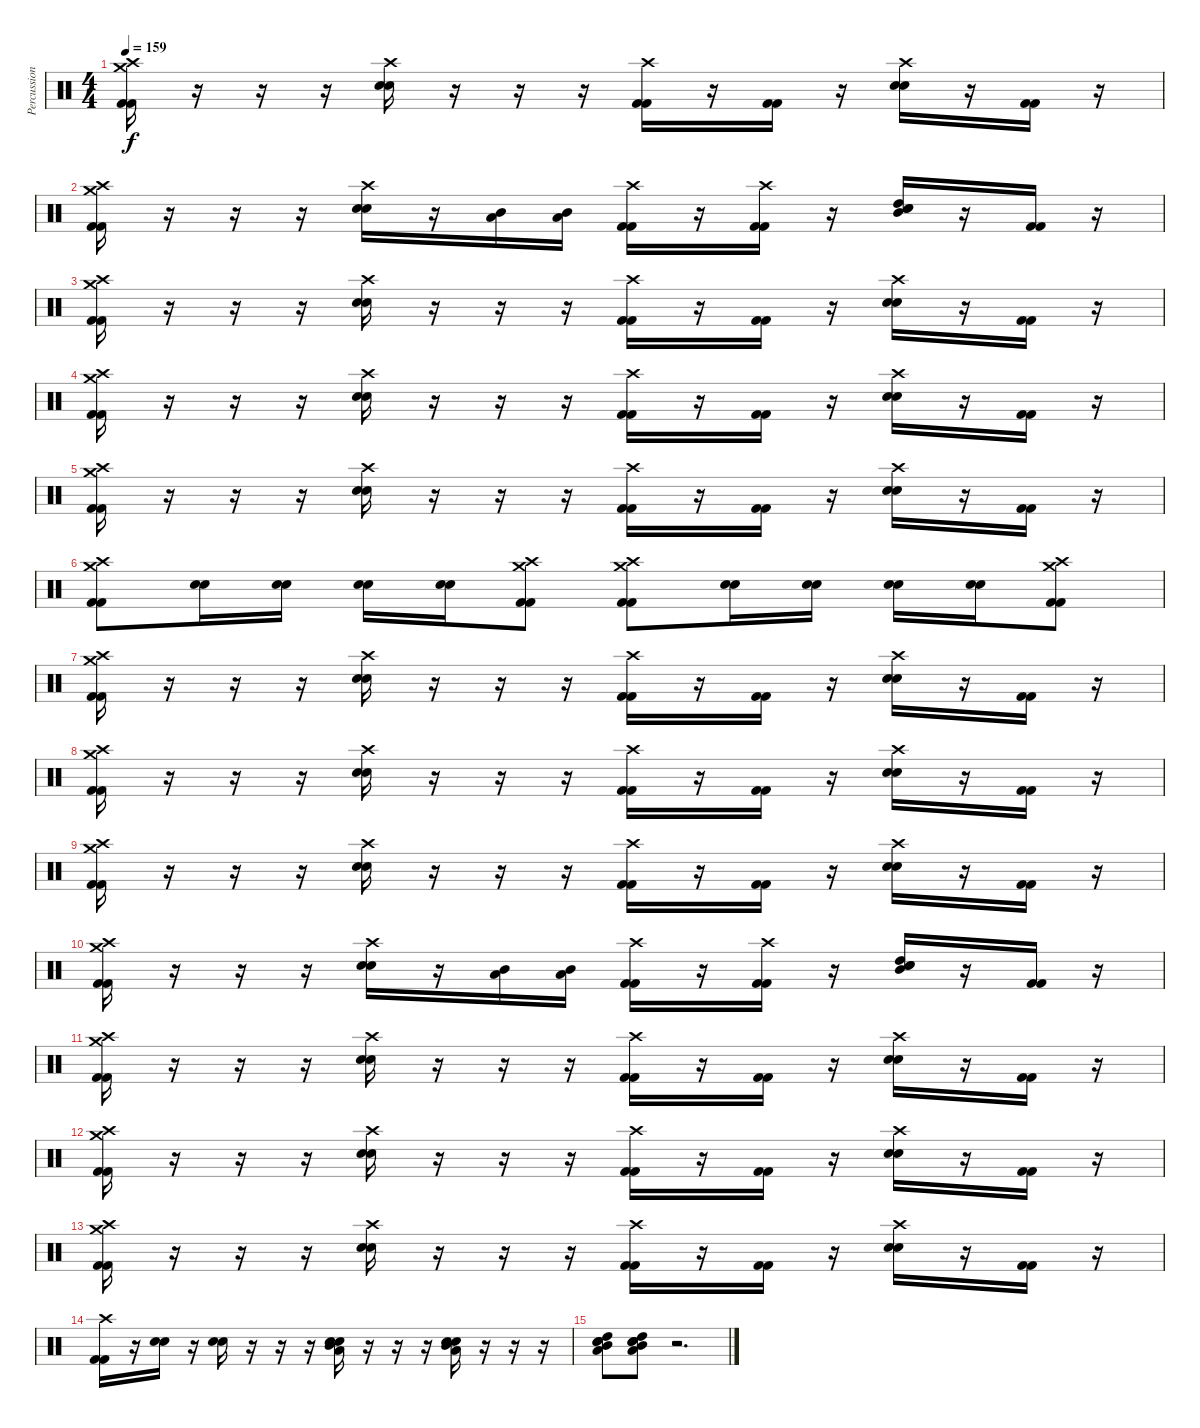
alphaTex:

\track ("Percussioni" "Percussion") {instrument percussion}
\staff {score}
\articulation defaults
\ts (4 4)
\tempo 159
\clef neutral
\ks c
("Crash high (hit)" "Crash medium (hit)" "Kick (hit) 2" "Kick (hit) 2").16{dy f} r.16 r.16 r.16 ("Crash high (hit)" "Snare (hit) 2" "Snare (hit) 2").16 r.16 r.16 r.16 ("Crash high (hit)" "Kick (hit) 2" "Kick (hit) 2").16 r.16 ("Kick (hit) 2" "Kick (hit) 2").16 r.16 ("Crash high (hit)" "Snare (hit) 2" "Snare (hit) 2").16 r.16 ("Kick (hit) 2" "Kick (hit) 2").16 r.16 |
("Crash high (hit)" "Crash medium (hit)" "Kick (hit) 2" "Kick (hit) 2").16 r.16 r.16 r.16 ("Crash high (hit)" "Snare (hit) 2" "Snare (hit) 2").16 r.16 ("Mid Tom (hit)" "Low Tom (hit)").16 ("Mid Tom (hit)" "Low Tom (hit)").16 ("Crash high (hit)" "Kick (hit) 2" "Kick (hit) 2").16 r.16 ("Crash high (hit)" "Kick (hit) 2" "Kick (hit) 2").16 r.16 ("Mid Tom (hit)" "High Tom (hit)" "Snare (hit) 2" "Snare (hit) 2").16 r.16 ("Kick (hit) 2" "Kick (hit) 2").16 r.16 |
("Crash high (hit)" "Crash medium (hit)" "Kick (hit) 2" "Kick (hit) 2").16 r.16 r.16 r.16 ("Crash high (hit)" "Snare (hit) 2" "Snare (hit) 2").16 r.16 r.16 r.16 ("Crash high (hit)" "Kick (hit) 2" "Kick (hit) 2").16 r.16 ("Kick (hit) 2" "Kick (hit) 2").16 r.16 ("Crash high (hit)" "Snare (hit) 2" "Snare (hit) 2").16 r.16 ("Kick (hit) 2" "Kick (hit) 2").16 r.16 |
("Crash high (hit)" "Crash medium (hit)" "Kick (hit) 2" "Kick (hit) 2").16 r.16 r.16 r.16 ("Crash high (hit)" "Snare (hit) 2" "Snare (hit) 2").16 r.16 r.16 r.16 ("Crash high (hit)" "Kick (hit) 2" "Kick (hit) 2").16 r.16 ("Kick (hit) 2" "Kick (hit) 2").16 r.16 ("Crash high (hit)" "Snare (hit) 2" "Snare (hit) 2").16 r.16 ("Kick (hit) 2" "Kick (hit) 2").16 r.16 |
("Crash high (hit)" "Crash medium (hit)" "Kick (hit) 2" "Kick (hit) 2").16 r.16 r.16 r.16 ("Crash high (hit)" "Snare (hit) 2" "Snare (hit) 2").16 r.16 r.16 r.16 ("Crash high (hit)" "Kick (hit) 2" "Kick (hit) 2").16 r.16 ("Kick (hit) 2" "Kick (hit) 2").16 r.16 ("Crash high (hit)" "Snare (hit) 2" "Snare (hit) 2").16 r.16 ("Kick (hit) 2" "Kick (hit) 2").16 r.16 |
("Crash medium (hit)" "Crash high (hit)" "Kick (hit) 2" "Kick (hit) 2").8 ("Snare (hit) 2" "Snare (hit) 2").16 ("Snare (hit) 2" "Snare (hit) 2").16 ("Snare (hit) 2" "Snare (hit) 2").16 ("Snare (hit) 2" "Snare (hit) 2").16 ("Crash high (hit)" "Crash medium (hit)" "Kick (hit) 2" "Kick (hit) 2").8 ("Crash medium (hit)" "Crash high (hit)" "Kick (hit) 2" "Kick (hit) 2").8 ("Snare (hit) 2" "Snare (hit) 2").16 ("Snare (hit) 2" "Snare (hit) 2").16 ("Snare (hit) 2" "Snare (hit) 2").16 ("Snare (hit) 2" "Snare (hit) 2").16 ("Crash medium (hit)" "Crash high (hit)" "Kick (hit) 2" "Kick (hit) 2").8 |
("Crash high (hit)" "Crash medium (hit)" "Kick (hit) 2" "Kick (hit) 2").16 r.16 r.16 r.16 ("Crash high (hit)" "Snare (hit) 2" "Snare (hit) 2").16 r.16 r.16 r.16 ("Crash high (hit)" "Kick (hit) 2" "Kick (hit) 2").16 r.16 ("Kick (hit) 2" "Kick (hit) 2").16 r.16 ("Crash high (hit)" "Snare (hit) 2" "Snare (hit) 2").16 r.16 ("Kick (hit) 2" "Kick (hit) 2").16 r.16 |
("Crash high (hit)" "Crash medium (hit)" "Kick (hit) 2" "Kick (hit) 2").16 r.16 r.16 r.16 ("Crash high (hit)" "Snare (hit) 2" "Snare (hit) 2").16 r.16 r.16 r.16 ("Crash high (hit)" "Kick (hit) 2" "Kick (hit) 2").16 r.16 ("Kick (hit) 2" "Kick (hit) 2").16 r.16 ("Crash high (hit)" "Snare (hit) 2" "Snare (hit) 2").16 r.16 ("Kick (hit) 2" "Kick (hit) 2").16 r.16 |
("Crash high (hit)" "Crash medium (hit)" "Kick (hit) 2" "Kick (hit) 2").16 r.16 r.16 r.16 ("Crash high (hit)" "Snare (hit) 2" "Snare (hit) 2").16 r.16 r.16 r.16 ("Crash high (hit)" "Kick (hit) 2" "Kick (hit) 2").16 r.16 ("Kick (hit) 2" "Kick (hit) 2").16 r.16 ("Crash high (hit)" "Snare (hit) 2" "Snare (hit) 2").16 r.16 ("Kick (hit) 2" "Kick (hit) 2").16 r.16 |
("Crash high (hit)" "Crash medium (hit)" "Kick (hit) 2" "Kick (hit) 2").16 r.16 r.16 r.16 ("Crash high (hit)" "Snare (hit) 2" "Snare (hit) 2").16 r.16 ("Mid Tom (hit)" "Low Tom (hit)").16 ("Mid Tom (hit)" "Low Tom (hit)").16 ("Crash high (hit)" "Kick (hit) 2" "Kick (hit) 2").16 r.16 ("Crash high (hit)" "Kick (hit) 2" "Kick (hit) 2").16 r.16 ("Mid Tom (hit)" "High Tom (hit)" "Snare (hit) 2" "Snare (hit) 2").16 r.16 ("Kick (hit) 2" "Kick (hit) 2").16 r.16 |
("Crash high (hit)" "Crash medium (hit)" "Kick (hit) 2" "Kick (hit) 2").16 r.16 r.16 r.16 ("Crash high (hit)" "Snare (hit) 2" "Snare (hit) 2").16 r.16 r.16 r.16 ("Crash high (hit)" "Kick (hit) 2" "Kick (hit) 2").16 r.16 ("Kick (hit) 2" "Kick (hit) 2").16 r.16 ("Crash high (hit)" "Snare (hit) 2" "Snare (hit) 2").16 r.16 ("Kick (hit) 2" "Kick (hit) 2").16 r.16 |
("Crash high (hit)" "Crash medium (hit)" "Kick (hit) 2" "Kick (hit) 2").16 r.16 r.16 r.16 ("Crash high (hit)" "Snare (hit) 2" "Snare (hit) 2").16 r.16 r.16 r.16 ("Crash high (hit)" "Kick (hit) 2" "Kick (hit) 2").16 r.16 ("Kick (hit) 2" "Kick (hit) 2").16 r.16 ("Crash high (hit)" "Snare (hit) 2" "Snare (hit) 2").16 r.16 ("Kick (hit) 2" "Kick (hit) 2").16 r.16 |
("Crash high (hit)" "Crash medium (hit)" "Kick (hit) 2" "Kick (hit) 2").16 r.16 r.16 r.16 ("Crash high (hit)" "Snare (hit) 2" "Snare (hit) 2").16 r.16 r.16 r.16 ("Crash high (hit)" "Kick (hit) 2" "Kick (hit) 2").16 r.16 ("Kick (hit) 2" "Kick (hit) 2").16 r.16 ("Crash high (hit)" "Snare (hit) 2" "Snare (hit) 2").16 r.16 ("Kick (hit) 2" "Kick (hit) 2").16 r.16 |
("Crash high (hit)" "Kick (hit) 2" "Kick (hit) 2").16 r.16 ("Snare (hit) 2" "Snare (hit) 2").16 r.16 ("Snare (hit) 2" "Snare (hit) 2").16 r.16 r.16 r.16 ("Low Tom (hit)" "Mid Tom (hit)" "Snare (hit) 2" "Snare (hit) 2").16 r.16 r.16 r.16 ("Low Tom (hit)" "Mid Tom (hit)" "Snare (hit) 2" "Snare (hit) 2").16 r.16 r.16 r.16 |
("High Tom (hit)" "Mid Tom (hit)" "Low Tom (hit)" "Snare (hit) 2" "Snare (hit) 2").8 ("High Tom (hit)" "Mid Tom (hit)" "Low Tom (hit)" "Snare (hit) 2" "Snare (hit) 2").8 r.2{d}
